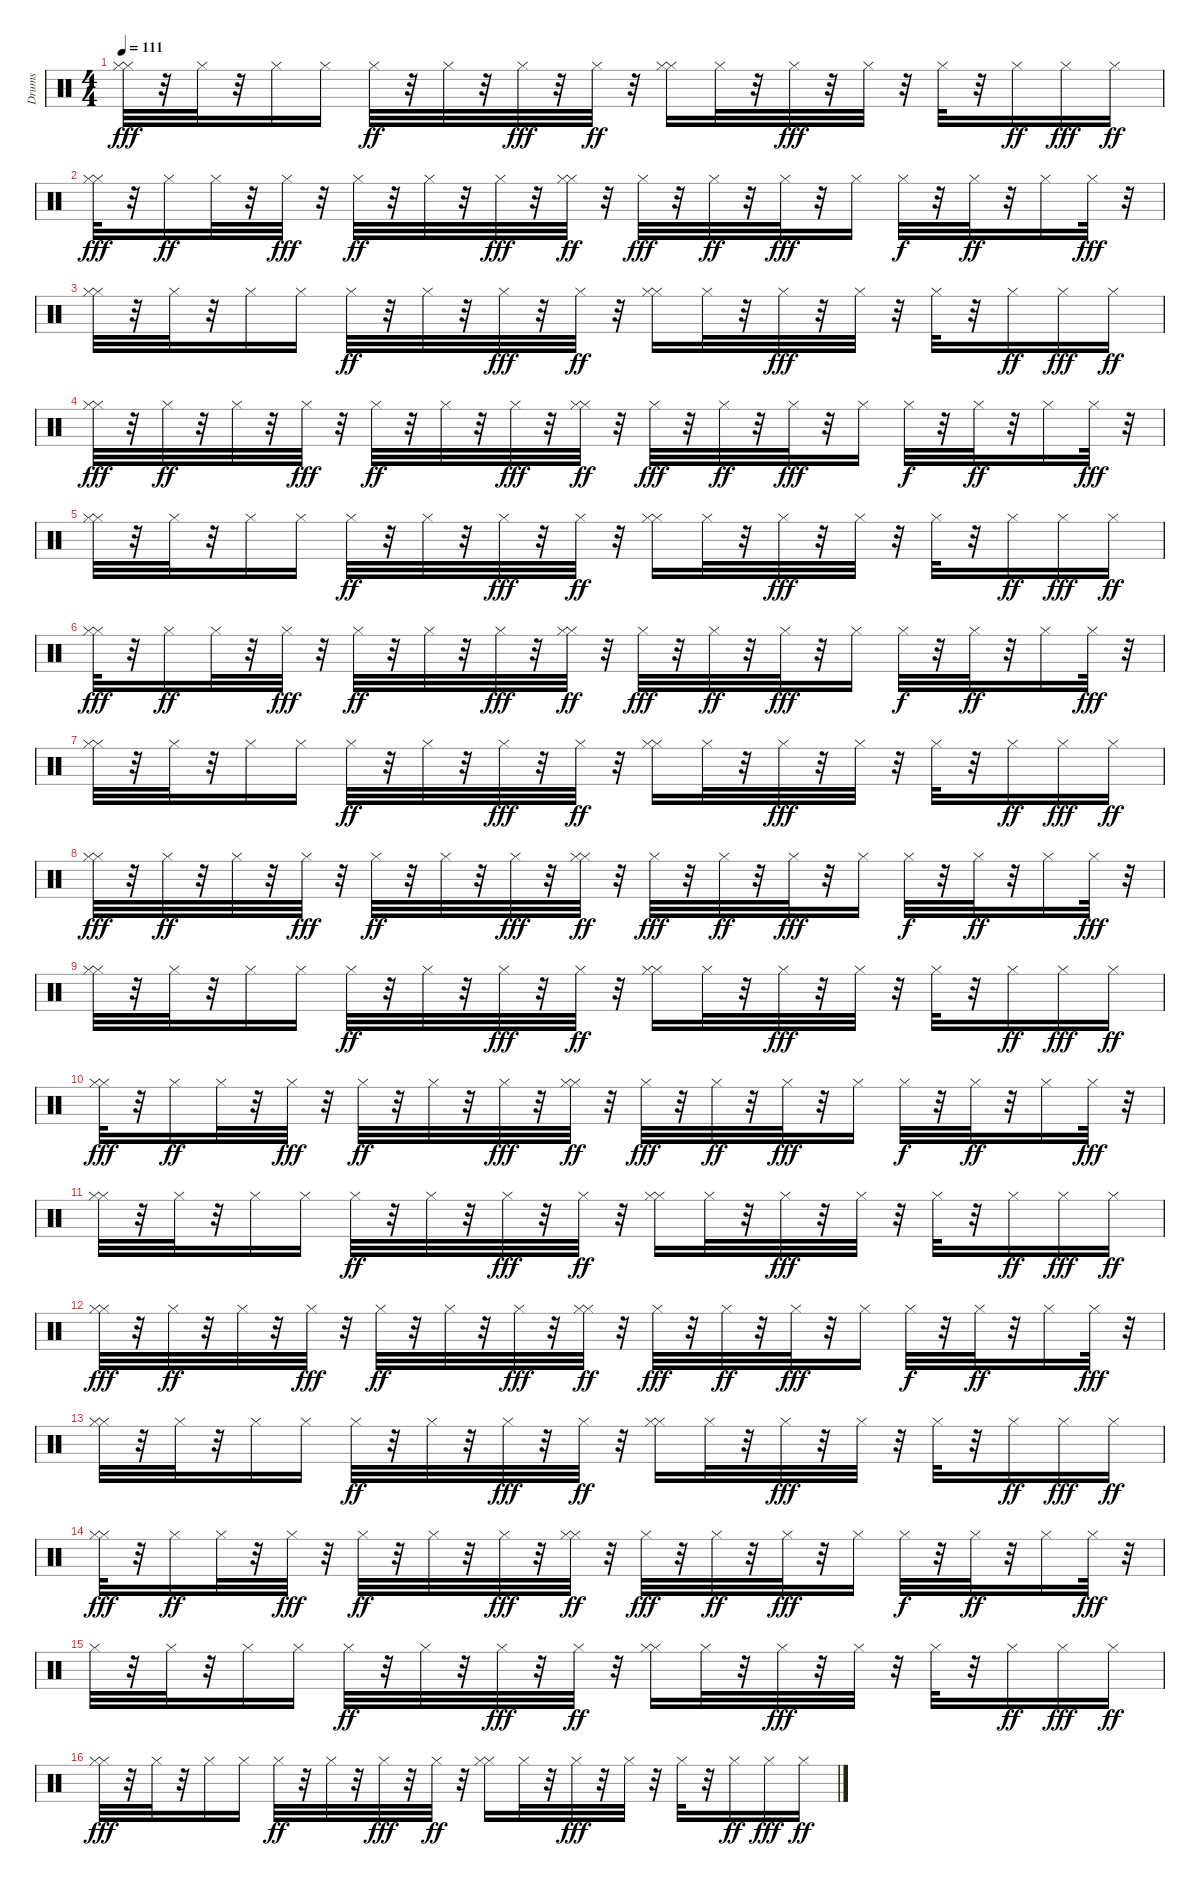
\track ("Drums" "Drums") {instrument percussion}
\staff {score}
\articulation defaults
\ts (4 4)
\tempo 111
\clef neutral
\ks c
("Hi-Hat (closed)" "Hi-Hat (closed)").32{dy fff} r.32 "Hi-Hat (closed)".32 r.32 "Hi-Hat (closed)".16 "Hi-Hat (closed)".16 "Hi-Hat (closed)".32{dy ff} r.32 "Hi-Hat (closed)".32 r.32 "Hi-Hat (closed)".32{dy fff} r.32 "Hi-Hat (closed)".32{dy ff} r.32 ("Hi-Hat (closed)" "Hi-Hat (closed)").16 "Hi-Hat (closed)".32 r.32 "Hi-Hat (closed)".32{dy fff} r.32 "Hi-Hat (closed)".32 r.32 "Hi-Hat (closed)".32 r.32 "Hi-Hat (closed)".16{dy ff} "Hi-Hat (closed)".16{dy fff} "Hi-Hat (closed)".16{dy ff} |
("Hi-Hat (closed)" "Hi-Hat (closed)").32{dy fff} r.32 "Hi-Hat (closed)".16{dy ff} "Hi-Hat (closed)".32 r.32 "Hi-Hat (closed)".32{dy fff} r.32 "Hi-Hat (closed)".32{dy ff} r.32 "Hi-Hat (closed)".32 r.32 "Hi-Hat (closed)".32{dy fff} r.32 ("Hi-Hat (closed)" "Hi-Hat (closed)").32{dy ff} r.32 "Hi-Hat (closed)".32{dy fff} r.32 "Hi-Hat (closed)".32{dy ff} r.32 "Hi-Hat (closed)".32{dy fff} r.32 "Hi-Hat (closed)".16 "Hi-Hat (closed)".32{dy f} r.32 "Hi-Hat (closed)".32{dy ff} r.32 "Hi-Hat (closed)".16 "Hi-Hat (closed)".32{dy fff} r.32 |
("Hi-Hat (closed)" "Hi-Hat (closed)").32 r.32 "Hi-Hat (closed)".32 r.32 "Hi-Hat (closed)".16 "Hi-Hat (closed)".16 "Hi-Hat (closed)".32{dy ff} r.32 "Hi-Hat (closed)".32 r.32 "Hi-Hat (closed)".32{dy fff} r.32 "Hi-Hat (closed)".32{dy ff} r.32 ("Hi-Hat (closed)" "Hi-Hat (closed)").16 "Hi-Hat (closed)".32 r.32 "Hi-Hat (closed)".32{dy fff} r.32 "Hi-Hat (closed)".32 r.32 "Hi-Hat (closed)".32 r.32 "Hi-Hat (closed)".16{dy ff} "Hi-Hat (closed)".16{dy fff} "Hi-Hat (closed)".16{dy ff} |
("Hi-Hat (closed)" "Hi-Hat (closed)").32{dy fff} r.32 "Hi-Hat (closed)".32{dy ff} r.32 "Hi-Hat (closed)".32 r.32 "Hi-Hat (closed)".32{dy fff} r.32 "Hi-Hat (closed)".32{dy ff} r.32 "Hi-Hat (closed)".32 r.32 "Hi-Hat (closed)".32{dy fff} r.32 ("Hi-Hat (closed)" "Hi-Hat (closed)").32{dy ff} r.32 "Hi-Hat (closed)".32{dy fff} r.32 "Hi-Hat (closed)".32{dy ff} r.32 "Hi-Hat (closed)".32{dy fff} r.32 "Hi-Hat (closed)".16 "Hi-Hat (closed)".32{dy f} r.32 "Hi-Hat (closed)".32{dy ff} r.32 "Hi-Hat (closed)".16 "Hi-Hat (closed)".32{dy fff} r.32 |
("Hi-Hat (closed)" "Hi-Hat (closed)").32 r.32 "Hi-Hat (closed)".32 r.32 "Hi-Hat (closed)".16 "Hi-Hat (closed)".16 "Hi-Hat (closed)".32{dy ff} r.32 "Hi-Hat (closed)".32 r.32 "Hi-Hat (closed)".32{dy fff} r.32 "Hi-Hat (closed)".32{dy ff} r.32 ("Hi-Hat (closed)" "Hi-Hat (closed)").16 "Hi-Hat (closed)".32 r.32 "Hi-Hat (closed)".32{dy fff} r.32 "Hi-Hat (closed)".32 r.32 "Hi-Hat (closed)".32 r.32 "Hi-Hat (closed)".16{dy ff} "Hi-Hat (closed)".16{dy fff} "Hi-Hat (closed)".16{dy ff} |
("Hi-Hat (closed)" "Hi-Hat (closed)").32{dy fff} r.32 "Hi-Hat (closed)".16{dy ff} "Hi-Hat (closed)".32 r.32 "Hi-Hat (closed)".32{dy fff} r.32 "Hi-Hat (closed)".32{dy ff} r.32 "Hi-Hat (closed)".32 r.32 "Hi-Hat (closed)".32{dy fff} r.32 ("Hi-Hat (closed)" "Hi-Hat (closed)").32{dy ff} r.32 "Hi-Hat (closed)".32{dy fff} r.32 "Hi-Hat (closed)".32{dy ff} r.32 "Hi-Hat (closed)".32{dy fff} r.32 "Hi-Hat (closed)".16 "Hi-Hat (closed)".32{dy f} r.32 "Hi-Hat (closed)".32{dy ff} r.32 "Hi-Hat (closed)".16 "Hi-Hat (closed)".32{dy fff} r.32 |
("Hi-Hat (closed)" "Hi-Hat (closed)").32 r.32 "Hi-Hat (closed)".32 r.32 "Hi-Hat (closed)".16 "Hi-Hat (closed)".16 "Hi-Hat (closed)".32{dy ff} r.32 "Hi-Hat (closed)".32 r.32 "Hi-Hat (closed)".32{dy fff} r.32 "Hi-Hat (closed)".32{dy ff} r.32 ("Hi-Hat (closed)" "Hi-Hat (closed)").16 "Hi-Hat (closed)".32 r.32 "Hi-Hat (closed)".32{dy fff} r.32 "Hi-Hat (closed)".32 r.32 "Hi-Hat (closed)".32 r.32 "Hi-Hat (closed)".16{dy ff} "Hi-Hat (closed)".16{dy fff} "Hi-Hat (closed)".16{dy ff} |
("Hi-Hat (closed)" "Hi-Hat (closed)").32{dy fff} r.32 "Hi-Hat (closed)".32{dy ff} r.32 "Hi-Hat (closed)".32 r.32 "Hi-Hat (closed)".32{dy fff} r.32 "Hi-Hat (closed)".32{dy ff} r.32 "Hi-Hat (closed)".32 r.32 "Hi-Hat (closed)".32{dy fff} r.32 ("Hi-Hat (closed)" "Hi-Hat (closed)").32{dy ff} r.32 "Hi-Hat (closed)".32{dy fff} r.32 "Hi-Hat (closed)".32{dy ff} r.32 "Hi-Hat (closed)".32{dy fff} r.32 "Hi-Hat (closed)".16 "Hi-Hat (closed)".32{dy f} r.32 "Hi-Hat (closed)".32{dy ff} r.32 "Hi-Hat (closed)".16 "Hi-Hat (closed)".32{dy fff} r.32 |
("Hi-Hat (closed)" "Hi-Hat (closed)").32 r.32 "Hi-Hat (closed)".32 r.32 "Hi-Hat (closed)".16 "Hi-Hat (closed)".16 "Hi-Hat (closed)".32{dy ff} r.32 "Hi-Hat (closed)".32 r.32 "Hi-Hat (closed)".32{dy fff} r.32 "Hi-Hat (closed)".32{dy ff} r.32 ("Hi-Hat (closed)" "Hi-Hat (closed)").16 "Hi-Hat (closed)".32 r.32 "Hi-Hat (closed)".32{dy fff} r.32 "Hi-Hat (closed)".32 r.32 "Hi-Hat (closed)".32 r.32 "Hi-Hat (closed)".16{dy ff} "Hi-Hat (closed)".16{dy fff} "Hi-Hat (closed)".16{dy ff} |
("Hi-Hat (closed)" "Hi-Hat (closed)").32{dy fff} r.32 "Hi-Hat (closed)".16{dy ff} "Hi-Hat (closed)".32 r.32 "Hi-Hat (closed)".32{dy fff} r.32 "Hi-Hat (closed)".32{dy ff} r.32 "Hi-Hat (closed)".32 r.32 "Hi-Hat (closed)".32{dy fff} r.32 ("Hi-Hat (closed)" "Hi-Hat (closed)").32{dy ff} r.32 "Hi-Hat (closed)".32{dy fff} r.32 "Hi-Hat (closed)".32{dy ff} r.32 "Hi-Hat (closed)".32{dy fff} r.32 "Hi-Hat (closed)".16 "Hi-Hat (closed)".32{dy f} r.32 "Hi-Hat (closed)".32{dy ff} r.32 "Hi-Hat (closed)".16 "Hi-Hat (closed)".32{dy fff} r.32 |
("Hi-Hat (closed)" "Hi-Hat (closed)").32 r.32 "Hi-Hat (closed)".32 r.32 "Hi-Hat (closed)".16 "Hi-Hat (closed)".16 "Hi-Hat (closed)".32{dy ff} r.32 "Hi-Hat (closed)".32 r.32 "Hi-Hat (closed)".32{dy fff} r.32 "Hi-Hat (closed)".32{dy ff} r.32 ("Hi-Hat (closed)" "Hi-Hat (closed)").16 "Hi-Hat (closed)".32 r.32 "Hi-Hat (closed)".32{dy fff} r.32 "Hi-Hat (closed)".32 r.32 "Hi-Hat (closed)".32 r.32 "Hi-Hat (closed)".16{dy ff} "Hi-Hat (closed)".16{dy fff} "Hi-Hat (closed)".16{dy ff} |
("Hi-Hat (closed)" "Hi-Hat (closed)").32{dy fff} r.32 "Hi-Hat (closed)".32{dy ff} r.32 "Hi-Hat (closed)".32 r.32 "Hi-Hat (closed)".32{dy fff} r.32 "Hi-Hat (closed)".32{dy ff} r.32 "Hi-Hat (closed)".32 r.32 "Hi-Hat (closed)".32{dy fff} r.32 ("Hi-Hat (closed)" "Hi-Hat (closed)").32{dy ff} r.32 "Hi-Hat (closed)".32{dy fff} r.32 "Hi-Hat (closed)".32{dy ff} r.32 "Hi-Hat (closed)".32{dy fff} r.32 "Hi-Hat (closed)".16 "Hi-Hat (closed)".32{dy f} r.32 "Hi-Hat (closed)".32{dy ff} r.32 "Hi-Hat (closed)".16 "Hi-Hat (closed)".32{dy fff} r.32 |
("Hi-Hat (closed)" "Hi-Hat (closed)").32 r.32 "Hi-Hat (closed)".32 r.32 "Hi-Hat (closed)".16 "Hi-Hat (closed)".16 "Hi-Hat (closed)".32{dy ff} r.32 "Hi-Hat (closed)".32 r.32 "Hi-Hat (closed)".32{dy fff} r.32 "Hi-Hat (closed)".32{dy ff} r.32 ("Hi-Hat (closed)" "Hi-Hat (closed)").16 "Hi-Hat (closed)".32 r.32 "Hi-Hat (closed)".32{dy fff} r.32 "Hi-Hat (closed)".32 r.32 "Hi-Hat (closed)".32 r.32 "Hi-Hat (closed)".16{dy ff} "Hi-Hat (closed)".16{dy fff} "Hi-Hat (closed)".16{dy ff} |
("Hi-Hat (closed)" "Hi-Hat (closed)").32{dy fff} r.32 "Hi-Hat (closed)".16{dy ff} "Hi-Hat (closed)".32 r.32 "Hi-Hat (closed)".32{dy fff} r.32 "Hi-Hat (closed)".32{dy ff} r.32 "Hi-Hat (closed)".32 r.32 "Hi-Hat (closed)".32{dy fff} r.32 ("Hi-Hat (closed)" "Hi-Hat (closed)").32{dy ff} r.32 "Hi-Hat (closed)".32{dy fff} r.32 "Hi-Hat (closed)".32{dy ff} r.32 "Hi-Hat (closed)".32{dy fff} r.32 "Hi-Hat (closed)".16 "Hi-Hat (closed)".32{dy f} r.32 "Hi-Hat (closed)".32{dy ff} r.32 "Hi-Hat (closed)".16 "Hi-Hat (closed)".32{dy fff} r.32 |
"Hi-Hat (closed)".32 r.32 "Hi-Hat (closed)".32 r.32 "Hi-Hat (closed)".16 "Hi-Hat (closed)".16 "Hi-Hat (closed)".32{dy ff} r.32 "Hi-Hat (closed)".32 r.32 "Hi-Hat (closed)".32{dy fff} r.32 "Hi-Hat (closed)".32{dy ff} r.32 ("Hi-Hat (closed)" "Hi-Hat (closed)").16 "Hi-Hat (closed)".32 r.32 "Hi-Hat (closed)".32{dy fff} r.32 "Hi-Hat (closed)".32 r.32 "Hi-Hat (closed)".32 r.32 "Hi-Hat (closed)".16{dy ff} "Hi-Hat (closed)".16{dy fff} "Hi-Hat (closed)".16{dy ff} |
("Hi-Hat (closed)" "Hi-Hat (closed)").32{dy fff} r.32 "Hi-Hat (closed)".32 r.32 "Hi-Hat (closed)".16 "Hi-Hat (closed)".16 "Hi-Hat (closed)".32{dy ff} r.32 "Hi-Hat (closed)".32 r.32 "Hi-Hat (closed)".32{dy fff} r.32 "Hi-Hat (closed)".32{dy ff} r.32 ("Hi-Hat (closed)" "Hi-Hat (closed)").16 "Hi-Hat (closed)".32 r.32 "Hi-Hat (closed)".32{dy fff} r.32 "Hi-Hat (closed)".32 r.32 "Hi-Hat (closed)".32 r.32 "Hi-Hat (closed)".16{dy ff} "Hi-Hat (closed)".16{dy fff} "Hi-Hat (closed)".16{dy ff}
